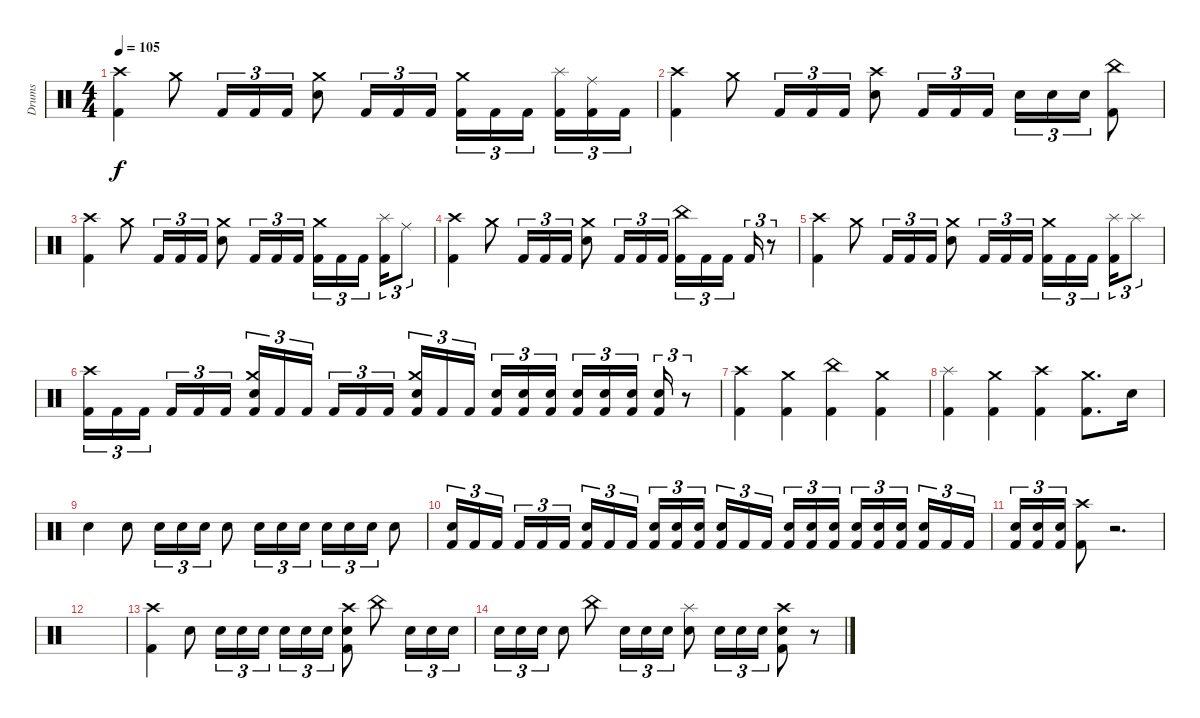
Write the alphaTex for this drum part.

\track ("Drums" "Drums") {instrument percussion}
\staff {score}
\articulation defaults
\ts (4 4)
\tempo 105
\clef neutral
\ks c
("Crash high (hit)" "Kick (hit) 2").4{dy f} "Crash medium (hit)".8 "Kick (hit) 2".16{tu (3 2)} "Kick (hit) 2".16{tu (3 2)} "Kick (hit) 2".16{tu (3 2)} ("Crash medium (hit)" "Electric Snare (hit)").8 "Kick (hit) 2".16{tu (3 2)} "Kick (hit) 2".16{tu (3 2)} "Kick (hit) 2".16{tu (3 2)} ("Crash medium (hit)" "Kick (hit) 2").16{tu (3 2)} "Kick (hit) 2".16{tu (3 2)} "Kick (hit) 2".16{tu (3 2) beam splitsecondary} ("Splash (hit)" "Kick (hit) 2").16{tu (3 2)} ("Ride (middle)" "Kick (hit) 2").16{tu (3 2)} "Kick (hit) 2".16{tu (3 2)} |
("Crash high (hit)" "Kick (hit) 2").4 "Crash medium (hit)".8 "Kick (hit) 2".16{tu (3 2)} "Kick (hit) 2".16{tu (3 2)} "Kick (hit) 2".16{tu (3 2)} ("Crash high (hit)" "Electric Snare (hit)").8 "Kick (hit) 2".16{tu (3 2)} "Kick (hit) 2".16{tu (3 2)} "Kick (hit) 2".16{tu (3 2)} "Electric Snare (hit)".16{tu (3 2)} "Electric Snare (hit)".16{tu (3 2)} "Electric Snare (hit)".16{tu (3 2)} ("China (hit)" "Kick (hit) 2").8 |
("Crash high (hit)" "Kick (hit) 2").4 "Crash medium (hit)".8 "Kick (hit) 2".16{tu (3 2)} "Kick (hit) 2".16{tu (3 2)} "Kick (hit) 2".16{tu (3 2)} ("Crash medium (hit)" "Electric Snare (hit)").8 "Kick (hit) 2".16{tu (3 2)} "Kick (hit) 2".16{tu (3 2)} "Kick (hit) 2".16{tu (3 2)} ("Crash medium (hit)" "Kick (hit) 2").16{tu (3 2)} "Kick (hit) 2".16{tu (3 2)} "Kick (hit) 2".16{tu (3 2) beam splitsecondary} ("Splash (hit)" "Kick (hit) 2").16{tu (3 2)} "Ride (middle)".8{tu (3 2)} |
("Crash high (hit)" "Kick (hit) 2").4 "Crash medium (hit)".8 "Kick (hit) 2".16{tu (3 2)} "Kick (hit) 2".16{tu (3 2)} "Kick (hit) 2".16{tu (3 2)} ("Crash medium (hit)" "Electric Snare (hit)").8 "Kick (hit) 2".16{tu (3 2)} "Kick (hit) 2".16{tu (3 2)} "Kick (hit) 2".16{tu (3 2)} ("China (hit)" "Kick (hit) 2").16{tu (3 2)} "Kick (hit) 2".16{tu (3 2)} "Kick (hit) 2".16{tu (3 2) beam splitsecondary} "Kick (hit) 2".16{tu (3 2)} r.8{tu (3 2)} |
("Crash high (hit)" "Kick (hit) 2").4 "Crash medium (hit)".8 "Kick (hit) 2".16{tu (3 2)} "Kick (hit) 2".16{tu (3 2)} "Kick (hit) 2".16{tu (3 2)} ("Crash medium (hit)" "Electric Snare (hit)").8 "Kick (hit) 2".16{tu (3 2)} "Kick (hit) 2".16{tu (3 2)} "Kick (hit) 2".16{tu (3 2)} ("Crash medium (hit)" "Kick (hit) 2").16{tu (3 2)} "Kick (hit) 2".16{tu (3 2)} "Kick (hit) 2".16{tu (3 2) beam splitsecondary} ("Splash (hit)" "Kick (hit) 2").16{tu (3 2)} "Splash (hit)".8{tu (3 2)} |
("Crash high (hit)" "Kick (hit) 2").16{tu (3 2)} "Kick (hit) 2".16{tu (3 2)} "Kick (hit) 2".16{tu (3 2) beam splitsecondary} "Kick (hit) 2".16{tu (3 2)} "Kick (hit) 2".16{tu (3 2)} "Kick (hit) 2".16{tu (3 2)} ("Crash medium (hit)" "Electric Snare (hit)" "Kick (hit) 2").16{tu (3 2)} "Kick (hit) 2".16{tu (3 2)} "Kick (hit) 2".16{tu (3 2) beam splitsecondary} "Kick (hit) 2".16{tu (3 2)} "Kick (hit) 2".16{tu (3 2)} "Kick (hit) 2".16{tu (3 2)} ("Crash medium (hit)" "Electric Snare (hit)" "Kick (hit) 2").16{tu (3 2)} "Kick (hit) 2".16{tu (3 2)} "Kick (hit) 2".16{tu (3 2) beam splitsecondary} ("Electric Snare (hit)" "Kick (hit) 2").16{tu (3 2)} ("Electric Snare (hit)" "Kick (hit) 2").16{tu (3 2)} ("Electric Snare (hit)" "Kick (hit) 2").16{tu (3 2)} ("Electric Snare (hit)" "Kick (hit) 2").16{tu (3 2)} ("Electric Snare (hit)" "Kick (hit) 2").16{tu (3 2)} ("Electric Snare (hit)" "Kick (hit) 2").16{tu (3 2) beam splitsecondary} ("Electric Snare (hit)" "Kick (hit) 2").16{tu (3 2)} r.8{tu (3 2)} |
("Crash high (hit)" "Kick (hit) 2").4 ("Crash medium (hit)" "Kick (hit) 2").4 ("China (hit)" "Kick (hit) 2").4 ("Crash medium (hit)" "Kick (hit) 2").4 |
("Splash (hit)" "Kick (hit) 2").4 ("Crash medium (hit)" "Kick (hit) 2").4 ("Crash high (hit)" "Kick (hit) 2").4 ("Crash medium (hit)" "Kick (hit) 2").8{d} "Electric Snare (hit)".16 |
"Electric Snare (hit)".4 "Electric Snare (hit)".8 "Electric Snare (hit)".16{tu (3 2)} "Electric Snare (hit)".16{tu (3 2)} "Electric Snare (hit)".16{tu (3 2)} "Electric Snare (hit)".8 "Electric Snare (hit)".16{tu (3 2)} "Electric Snare (hit)".16{tu (3 2)} "Electric Snare (hit)".16{tu (3 2)} "Electric Snare (hit)".16{tu (3 2)} "Electric Snare (hit)".16{tu (3 2)} "Electric Snare (hit)".16{tu (3 2)} "Electric Snare (hit)".8 |
("Electric Snare (hit)" "Kick (hit) 2").16{tu (3 2)} "Kick (hit) 2".16{tu (3 2)} "Kick (hit) 2".16{tu (3 2) beam splitsecondary} "Kick (hit) 2".16{tu (3 2)} "Kick (hit) 2".16{tu (3 2)} "Kick (hit) 2".16{tu (3 2)} ("Electric Snare (hit)" "Kick (hit) 2").16{tu (3 2)} "Kick (hit) 2".16{tu (3 2)} "Kick (hit) 2".16{tu (3 2) beam splitsecondary} ("Electric Snare (hit)" "Kick (hit) 2").16{tu (3 2)} ("Electric Snare (hit)" "Kick (hit) 2").16{tu (3 2)} ("Electric Snare (hit)" "Kick (hit) 2").16{tu (3 2)} ("Electric Snare (hit)" "Kick (hit) 2").16{tu (3 2)} "Kick (hit) 2".16{tu (3 2)} "Kick (hit) 2".16{tu (3 2) beam splitsecondary} ("Electric Snare (hit)" "Kick (hit) 2").16{tu (3 2)} ("Electric Snare (hit)" "Kick (hit) 2").16{tu (3 2)} ("Electric Snare (hit)" "Kick (hit) 2").16{tu (3 2)} ("Electric Snare (hit)" "Kick (hit) 2").16{tu (3 2)} ("Electric Snare (hit)" "Kick (hit) 2").16{tu (3 2)} ("Electric Snare (hit)" "Kick (hit) 2").16{tu (3 2) beam splitsecondary} ("Electric Snare (hit)" "Kick (hit) 2").16{tu (3 2)} "Kick (hit) 2".16{tu (3 2)} "Kick (hit) 2".16{tu (3 2)} |
("Electric Snare (hit)" "Kick (hit) 2").16{tu (3 2)} ("Electric Snare (hit)" "Kick (hit) 2").16{tu (3 2)} ("Electric Snare (hit)" "Kick (hit) 2").16{tu (3 2)} ("Crash high (hit)" "Kick (hit) 2").8 r.2{d} |
|
("Crash high (hit)" "Kick (hit) 2").4 "Electric Snare (hit)".8 "Electric Snare (hit)".16{tu (3 2)} "Electric Snare (hit)".16{tu (3 2)} "Electric Snare (hit)".16{tu (3 2)} "Electric Snare (hit)".16{tu (3 2)} "Electric Snare (hit)".16{tu (3 2)} "Electric Snare (hit)".16{tu (3 2)} ("Crash high (hit)" "Electric Snare (hit)" "Kick (hit) 2").8 "China (hit)".8 "Electric Snare (hit)".16{tu (3 2)} "Electric Snare (hit)".16{tu (3 2)} "Electric Snare (hit)".16{tu (3 2)} |
"Electric Snare (hit)".16{tu (3 2)} "Electric Snare (hit)".16{tu (3 2)} "Electric Snare (hit)".16{tu (3 2)} "Electric Snare (hit)".8 "China (hit)".8 "Electric Snare (hit)".16{tu (3 2)} "Electric Snare (hit)".16{tu (3 2)} "Electric Snare (hit)".16{tu (3 2)} ("Splash (hit)" "Electric Snare (hit)").8 "Electric Snare (hit)".16{tu (3 2)} "Electric Snare (hit)".16{tu (3 2)} "Electric Snare (hit)".16{tu (3 2)} ("Crash high (hit)" "Electric Snare (hit)" "Kick (hit) 2").8 r.8
